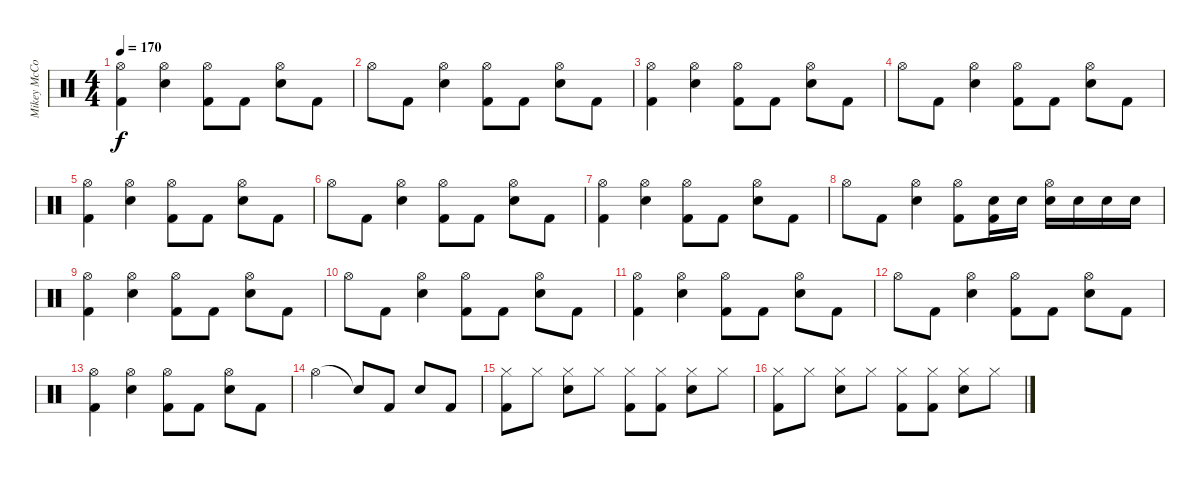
\track ("Mikey McCormack" "Mikey McCo") {instrument percussion}
\staff {score}
\articulation defaults
\ts (4 4)
\tempo 170
\clef neutral
\ks c
("Hi-Hat (open)" "Kick (hit) 2").4{dy f} ("Hi-Hat (open)" "Electric Snare (hit)").4 ("Hi-Hat (open)" "Kick (hit) 2").8 "Kick (hit) 2".8 ("Hi-Hat (open)" "Electric Snare (hit)").8 "Kick (hit) 2".8 |
"Hi-Hat (open)".8 "Kick (hit) 2".8 ("Hi-Hat (open)" "Electric Snare (hit)").4 ("Hi-Hat (open)" "Kick (hit) 2").8 "Kick (hit) 2".8 ("Hi-Hat (open)" "Electric Snare (hit)").8 "Kick (hit) 2".8 |
("Hi-Hat (open)" "Kick (hit) 2").4 ("Hi-Hat (open)" "Electric Snare (hit)").4 ("Hi-Hat (open)" "Kick (hit) 2").8 "Kick (hit) 2".8 ("Hi-Hat (open)" "Electric Snare (hit)").8 "Kick (hit) 2".8 |
"Hi-Hat (open)".8 "Kick (hit) 2".8 ("Hi-Hat (open)" "Electric Snare (hit)").4 ("Hi-Hat (open)" "Kick (hit) 2").8 "Kick (hit) 2".8 ("Hi-Hat (open)" "Electric Snare (hit)").8 "Kick (hit) 2".8 |
("Hi-Hat (open)" "Kick (hit) 2").4 ("Hi-Hat (open)" "Electric Snare (hit)").4 ("Hi-Hat (open)" "Kick (hit) 2").8 "Kick (hit) 2".8 ("Hi-Hat (open)" "Electric Snare (hit)").8 "Kick (hit) 2".8 |
"Hi-Hat (open)".8 "Kick (hit) 2".8 ("Hi-Hat (open)" "Electric Snare (hit)").4 ("Hi-Hat (open)" "Kick (hit) 2").8 "Kick (hit) 2".8 ("Hi-Hat (open)" "Electric Snare (hit)").8 "Kick (hit) 2".8 |
("Hi-Hat (open)" "Kick (hit) 2").4 ("Hi-Hat (open)" "Electric Snare (hit)").4 ("Hi-Hat (open)" "Kick (hit) 2").8 "Kick (hit) 2".8 ("Hi-Hat (open)" "Electric Snare (hit)").8 "Kick (hit) 2".8 |
"Hi-Hat (open)".8 "Kick (hit) 2".8 ("Hi-Hat (open)" "Electric Snare (hit)").4 ("Hi-Hat (open)" "Kick (hit) 2").8 ("Electric Snare (hit)" "Kick (hit) 2").16 "Electric Snare (hit)".16 ("Hi-Hat (open)" "Electric Snare (hit)").16 "Electric Snare (hit)".16 "Electric Snare (hit)".16 "Electric Snare (hit)".16 |
("Hi-Hat (open)" "Kick (hit) 2").4 ("Hi-Hat (open)" "Electric Snare (hit)").4 ("Hi-Hat (open)" "Kick (hit) 2").8 "Kick (hit) 2".8 ("Hi-Hat (open)" "Electric Snare (hit)").8 "Kick (hit) 2".8 |
"Hi-Hat (open)".8 "Kick (hit) 2".8 ("Hi-Hat (open)" "Electric Snare (hit)").4 ("Hi-Hat (open)" "Kick (hit) 2").8 "Kick (hit) 2".8 ("Hi-Hat (open)" "Electric Snare (hit)").8 "Kick (hit) 2".8 |
("Hi-Hat (open)" "Kick (hit) 2").4 ("Hi-Hat (open)" "Electric Snare (hit)").4 ("Hi-Hat (open)" "Kick (hit) 2").8 "Kick (hit) 2".8 ("Hi-Hat (open)" "Electric Snare (hit)").8 "Kick (hit) 2".8 |
"Hi-Hat (open)".8 "Kick (hit) 2".8 ("Hi-Hat (open)" "Electric Snare (hit)").4 ("Hi-Hat (open)" "Kick (hit) 2").8 "Kick (hit) 2".8 ("Hi-Hat (open)" "Electric Snare (hit)").8 "Kick (hit) 2".8 |
("Hi-Hat (open)" "Kick (hit) 2").4 ("Hi-Hat (open)" "Electric Snare (hit)").4 ("Hi-Hat (open)" "Kick (hit) 2").8 "Kick (hit) 2".8 ("Hi-Hat (open)" "Electric Snare (hit)").8 "Kick (hit) 2".8 |
"Hi-Hat (open)".2 "Snare (hit)"{t}.8 "Kick (hit) 2".8 "Electric Snare (hit)".8 "Kick (hit) 2".8 |
("Hi-Hat (closed)" "Kick (hit) 2").8 "Hi-Hat (closed)".8 ("Hi-Hat (closed)" "Electric Snare (hit)").8 "Hi-Hat (closed)".8 ("Hi-Hat (closed)" "Kick (hit) 2").8 ("Hi-Hat (closed)" "Kick (hit) 2").8 ("Hi-Hat (closed)" "Electric Snare (hit)").8 "Hi-Hat (closed)".8 |
("Hi-Hat (closed)" "Kick (hit) 2").8 "Hi-Hat (closed)".8 ("Hi-Hat (closed)" "Electric Snare (hit)").8 "Hi-Hat (closed)".8 ("Hi-Hat (closed)" "Kick (hit) 2").8 ("Hi-Hat (closed)" "Kick (hit) 2").8 ("Hi-Hat (closed)" "Electric Snare (hit)").8 "Hi-Hat (closed)".8
